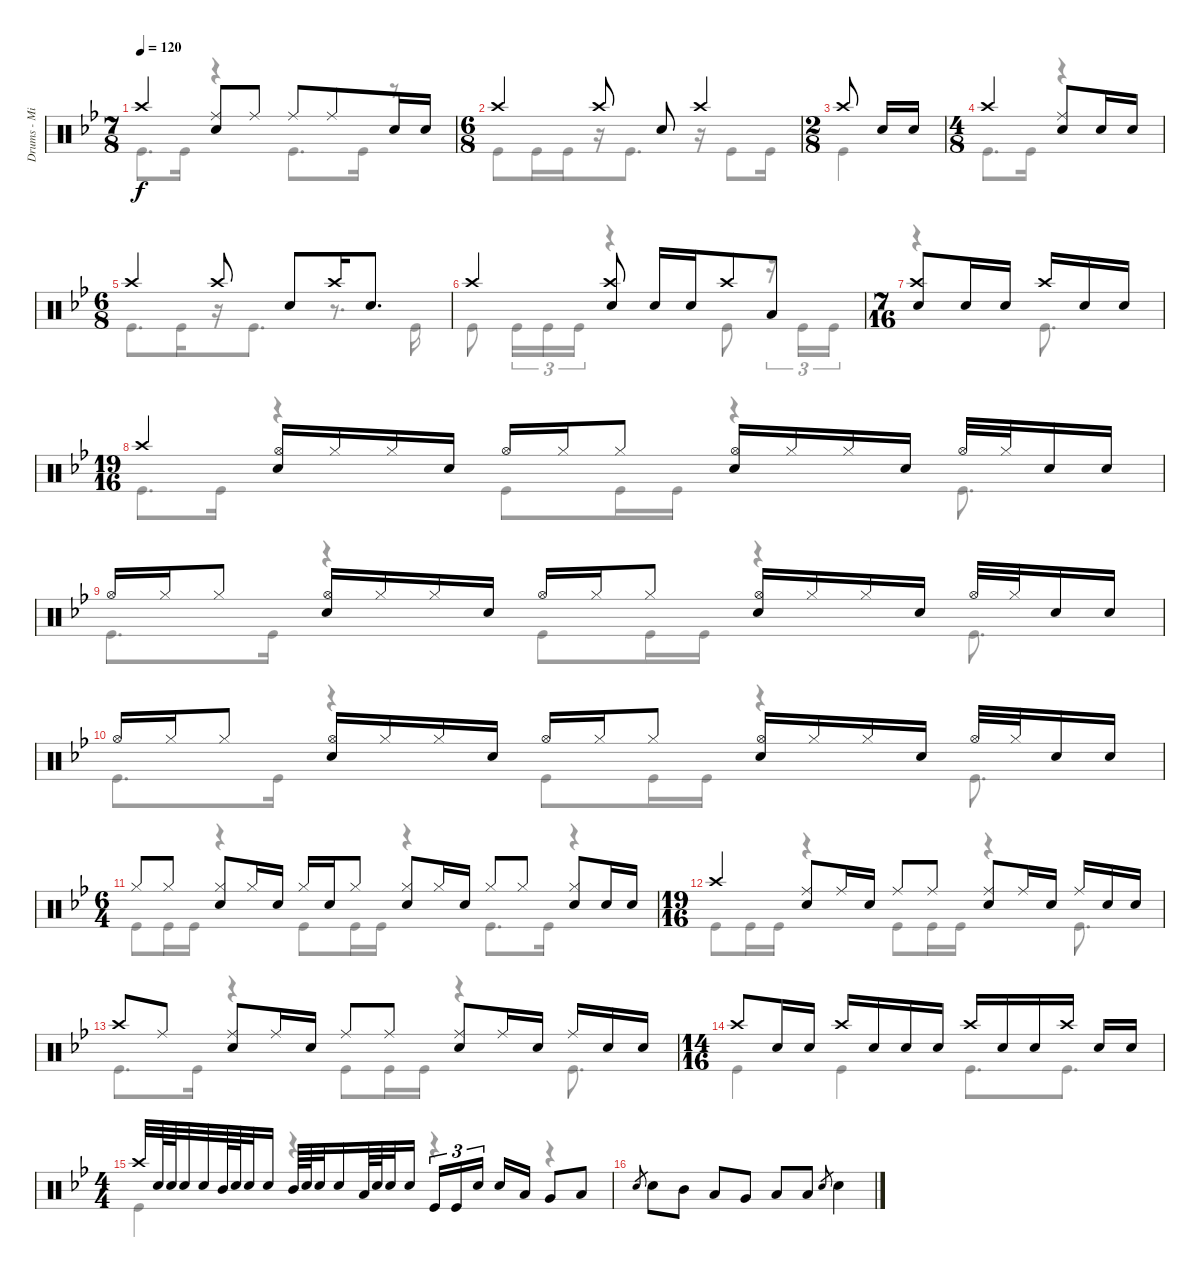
\track ("Drums - Mike Portnoy" "Drums - Mi") {instrument percussion}
\staff {score}
\articulation defaults
\voice
\ts (7 8)
\tempo 120
\clef neutral
\ks bb "Crash high (hit)".4{dy f}
("Ride (middle)" "Snare (hit) 2").8 "Ride (middle)".8 "Ride (middle)".8 "Ride (middle)".8 "Snare (hit) 2".16 "Snare (hit) 2".16 |
\ts (6 8)
"Crash high (hit)".4 "Crash high (hit)".8 "Snare (hit) 2".8 "Crash high (hit)".4 |
\ts (2 8)
"Crash high (hit)".8 "Snare (hit) 2".16 "Snare (hit) 2".16 |
\ts (4 8)
"Crash high (hit)".4 ("Ride (middle)" "Snare (hit) 2").8 "Snare (hit) 2".16 "Snare (hit) 2".16 |
\ts (6 8)
"Crash high (hit)".4 "Crash high (hit)".8 "Snare (hit) 2".8 "Crash high (hit)".16 "Snare (hit) 2".8{d} |
"Crash high (hit)".4 ("Crash high (hit)" "Snare (hit) 2").8 "Snare (hit) 2".16 "Snare (hit) 2".16 "Crash high (hit)".8 "Low Tom (hit)".8 |
\ts (7 16)
("Crash high (hit)" "Snare (hit) 2").8 "Snare (hit) 2".16 "Snare (hit) 2".16 "Crash high (hit)".16 "Snare (hit) 2".16 "Snare (hit) 2".16 |
\ts (19 16)
"Crash high (hit)".4 ("Hi-Hat (open)" "Snare (hit) 2").16 "Hi-Hat (closed)".16 "Hi-Hat (closed)".16 "Snare (hit) 2".16 "Hi-Hat (open)".16 "Hi-Hat (closed)".16 "Hi-Hat (closed)".8 ("Hi-Hat (open)" "Snare (hit) 2").16 "Hi-Hat (closed)".16 "Hi-Hat (closed)".16 "Snare (hit) 2".16 "Hi-Hat (open)".32 "Hi-Hat (closed)".32 "Snare (hit) 2".16 "Snare (hit) 2".16 |
"Hi-Hat (open)".16 "Hi-Hat (closed)".16 "Hi-Hat (closed)".8 ("Hi-Hat (open)" "Snare (hit) 2").16 "Hi-Hat (closed)".16 "Hi-Hat (closed)".16 "Snare (hit) 2".16 "Hi-Hat (open)".16 "Hi-Hat (closed)".16 "Hi-Hat (closed)".8 ("Hi-Hat (open)" "Snare (hit) 2").16 "Hi-Hat (closed)".16 "Hi-Hat (closed)".16 "Snare (hit) 2".16 "Hi-Hat (open)".32 "Hi-Hat (closed)".32 "Snare (hit) 2".16 "Snare (hit) 2".16 |
"Hi-Hat (open)".16 "Hi-Hat (closed)".16 "Hi-Hat (closed)".8 ("Hi-Hat (open)" "Snare (hit) 2").16 "Hi-Hat (closed)".16 "Hi-Hat (closed)".16 "Snare (hit) 2".16 "Hi-Hat (open)".16 "Hi-Hat (closed)".16 "Hi-Hat (closed)".8 ("Hi-Hat (open)" "Snare (hit) 2").16 "Hi-Hat (closed)".16 "Hi-Hat (closed)".16 "Snare (hit) 2".16 "Hi-Hat (open)".32 "Hi-Hat (closed)".32 "Snare (hit) 2".16 "Snare (hit) 2".16 |
\ts (6 4)
"Hi-Hat (closed)".8 "Hi-Hat (closed)".8 ("Hi-Hat (closed)" "Snare (hit) 2").8 "Hi-Hat (closed)".16 "Snare (hit) 2".16 "Hi-Hat (closed)".16 "Snare (hit) 2".16 "Hi-Hat (closed)".8 ("Hi-Hat (closed)" "Snare (hit) 2").8 "Hi-Hat (closed)".16 "Snare (hit) 2".16 "Hi-Hat (closed)".8 "Hi-Hat (closed)".8 ("Hi-Hat (closed)" "Snare (hit) 2").8 "Snare (hit) 2".16 "Snare (hit) 2".16 |
\ts (19 16)
"Crash high (hit)".4 ("Ride (middle)" "Snare (hit) 2").8 "Ride (middle)".16 "Snare (hit) 2".16 "Ride (middle)".8 "Ride (middle)".8 ("Ride (middle)" "Snare (hit) 2").8 "Ride (middle)".16 "Snare (hit) 2".16 "Ride (middle)".16 "Snare (hit) 2".16 "Snare (hit) 2".16 |
"Crash high (hit)".8 "Ride (middle)".8 ("Ride (middle)" "Snare (hit) 2").8 "Ride (middle)".16 "Snare (hit) 2".16 "Ride (middle)".8 "Ride (middle)".8 ("Ride (middle)" "Snare (hit) 2").8 "Ride (middle)".16 "Snare (hit) 2".16 "Ride (middle)".16 "Snare (hit) 2".16 "Snare (hit) 2".16 |
\ts (14 16)
"Crash high (hit)".8 "Snare (hit) 2".16 "Snare (hit) 2".16 "Crash high (hit)".16 "Snare (hit) 2".16 "Snare (hit) 2".16 "Snare (hit) 2".16 "Crash high (hit)".16 "Snare (hit) 2".16 "Snare (hit) 2".16 "Crash high (hit)".16 "Snare (hit) 2".16 "Snare (hit) 2".16 |
\ts (4 4)
"Crash high (hit)".32 "Snare (hit) 2".64 "Snare (hit) 2".64 "Snare (hit) 2".32 "Snare (hit) 2".32 "Mid Tom (hit)".64 "Snare (hit) 2".64 "Snare (hit) 2".32 "Snare (hit) 2".16 "Mid Tom (hit)".64 "Snare (hit) 2".64 "Snare (hit) 2".32 "Snare (hit) 2".16 "Low Tom (hit)".64 "Snare (hit) 2".64 "Snare (hit) 2".32 "Snare (hit) 2".16 "Kick (hit)".16{tu (3 2)} "Kick (hit)".16{tu (3 2)} "Snare (hit) 2".16{tu (3 2) beam splitsecondary} "Snare (hit) 2".16 "Low Tom (hit)".16 "Very Low Tom (hit)".8 "Low Floor Tom (hit)".8 |
"Snare (hit) 2".8{gr} "Snare (hit) 2".8 "Mid Tom (hit)".8 "Low Tom (hit)".8 "Very Low Tom (hit)".8 "Low Tom (hit)".8 "Low Floor Tom (hit)".8 "Snare (hit) 2".8{gr} "Snare (hit) 2".4
\voice
\clef neutral
\ottava regular
\simile none
\ks bb "Kick (hit)".8{d dy f} "Kick (hit)".16
r.4 "Kick (hit)".8{d} "Kick (hit)".16 r.8 |
"Kick (hit)".8 "Kick (hit)".16 "Kick (hit)".16 r.16 "Kick (hit)".8{d} r.16 "Kick (hit)".8 "Kick (hit)".16 |
"Kick (hit)".4 |
"Kick (hit)".8{d} "Kick (hit)".16 r.4 |
"Kick (hit)".8{d} "Kick (hit)".16 r.16 "Kick (hit)".8{d} r.8{d} "Kick (hit)".16 |
"Kick (hit)".8 "Kick (hit)".16{tu (3 2)} "Kick (hit)".16{tu (3 2)} "Kick (hit)".16{tu (3 2)} r.4 "Kick (hit)".8 r.16{tu (3 2)} "Kick (hit)".16{tu (3 2)} "Kick (hit)".16{tu (3 2)} |
r.4 "Kick (hit)".8{d} |
"Kick (hit)".8{d} "Kick (hit)".16 r.4 "Kick (hit)".8 "Kick (hit)".16 "Kick (hit)".16 r.4 "Kick (hit)".8{d} |
"Kick (hit)".8{d} "Kick (hit)".16 r.4 "Kick (hit)".8 "Kick (hit)".16 "Kick (hit)".16 r.4 "Kick (hit)".8{d} |
"Kick (hit)".8{d} "Kick (hit)".16 r.4 "Kick (hit)".8 "Kick (hit)".16 "Kick (hit)".16 r.4 "Kick (hit)".8{d} |
"Kick (hit)".8 "Kick (hit)".16 "Kick (hit)".16 r.4 "Kick (hit)".8 "Kick (hit)".16 "Kick (hit)".16 r.4 "Kick (hit)".8{d} "Kick (hit)".16 r.4 |
"Kick (hit)".8 "Kick (hit)".16 "Kick (hit)".16 r.4 "Kick (hit)".8 "Kick (hit)".16 "Kick (hit)".16 r.4 "Kick (hit)".8{d} |
"Kick (hit)".8{d} "Kick (hit)".16 r.4 "Kick (hit)".8 "Kick (hit)".16 "Kick (hit)".16 r.4 "Kick (hit)".8{d} |
"Kick (hit)".4 "Kick (hit)".4 "Kick (hit)".8{d} "Kick (hit)".8{d} |
"Kick (hit)".4 r.4 r.4 r.4 |
